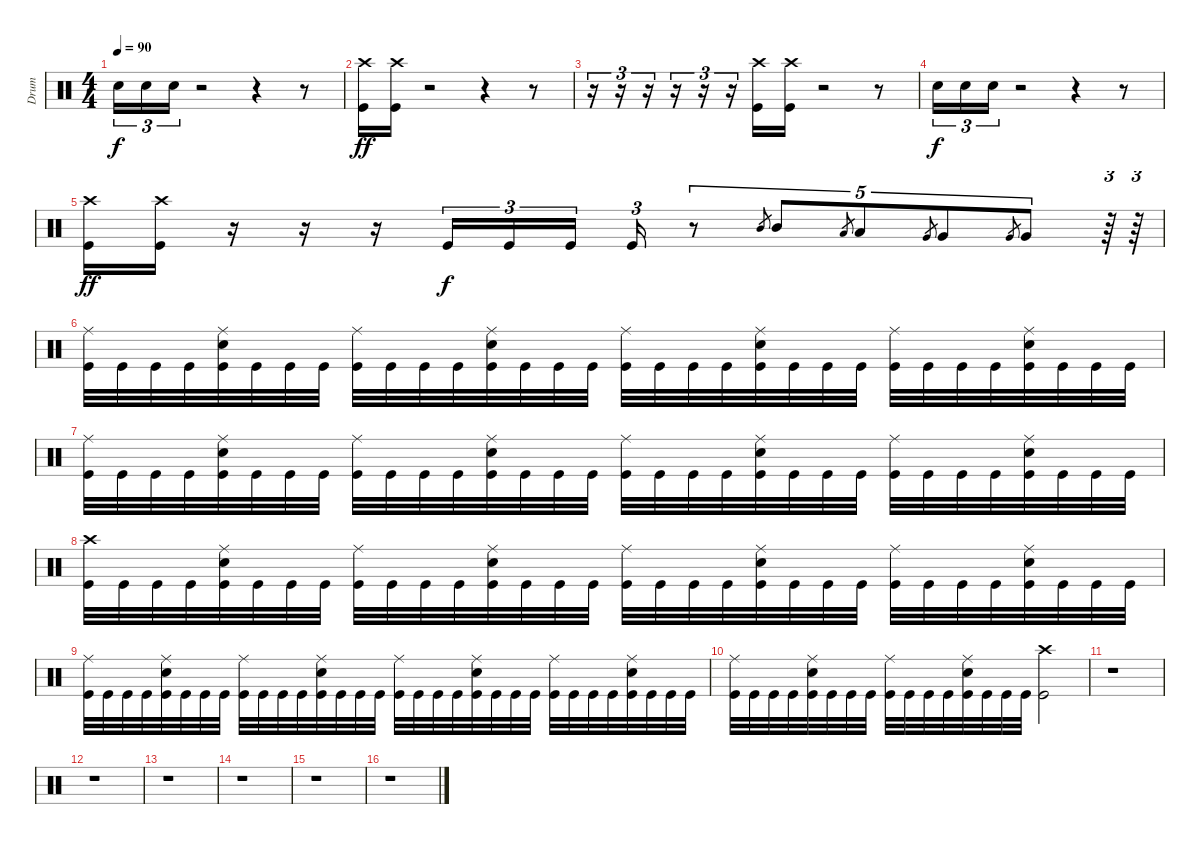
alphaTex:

\track ("Drum" "Drum") {instrument percussion}
\staff {score}
\articulation defaults
\ts (4 4)
\tempo 90
\clef neutral
\ks c "Electric Snare (hit)".16{tu (3 2) dy f} "Electric Snare (hit)".16{tu (3 2)} "Electric Snare (hit)".16{tu (3 2)}
r.2 r.4 r.8 |
("Crash high (hit)" "Kick (hit)").16{dy ff} ("Crash high (hit)" "Kick (hit)").16 r.2 r.4 r.8 |
r.16{tu (3 2) volume 13} r.16{tu (3 2)} r.16{tu (3 2)} r.16{tu (3 2)} r.16{tu (3 2)} r.16{tu (3 2)} ("Crash high (hit)" "Kick (hit)").16 ("Crash high (hit)" "Kick (hit)").16 r.2 r.8 |
"Electric Snare (hit)".16{tu (3 2) dy f} "Electric Snare (hit)".16{tu (3 2)} "Electric Snare (hit)".16{tu (3 2)} r.2 r.4 r.8 |
("Crash high (hit)" "Kick (hit)").16{dy ff} ("Crash high (hit)" "Kick (hit)").16 r.16 r.16 r.16 "Kick (hit)".16{tu (3 2) dy f} "Kick (hit)".16{tu (3 2)} "Kick (hit)".16{tu (3 2) beam splitsecondary} "Kick (hit)".16{tu (3 2)} r.8{tu (5 4)} "Mid Tom (hit)".8{gr} "Mid Tom (hit)".8{tu (5 4)} "Low Tom (hit)".8{gr} "Low Tom (hit)".8{tu (5 4)} "Very Low Tom (hit)".8{gr} "Very Low Tom (hit)".8{tu (5 4)} "Very Low Tom (hit)".8{gr} "Very Low Tom (hit)".8{tu (5 4)} r.64{tu (3 2)} r.64{tu (3 2)} |
("Ride (middle)" "Kick (hit)").32 "Kick (hit)".32 "Kick (hit)".32 "Kick (hit)".32 ("Ride (middle)" "Electric Snare (hit)" "Kick (hit)").32 "Kick (hit)".32 "Kick (hit)".32 "Kick (hit)".32 ("Ride (middle)" "Kick (hit)").32 "Kick (hit)".32 "Kick (hit)".32 "Kick (hit)".32 ("Ride (middle)" "Electric Snare (hit)" "Kick (hit)").32 "Kick (hit)".32 "Kick (hit)".32 "Kick (hit)".32 ("Ride (middle)" "Kick (hit)").32 "Kick (hit)".32 "Kick (hit)".32 "Kick (hit)".32 ("Ride (middle)" "Electric Snare (hit)" "Kick (hit)").32 "Kick (hit)".32 "Kick (hit)".32 "Kick (hit)".32 ("Ride (middle)" "Kick (hit)").32 "Kick (hit)".32 "Kick (hit)".32 "Kick (hit)".32 ("Ride (middle)" "Electric Snare (hit)" "Kick (hit)").32 "Kick (hit)".32 "Kick (hit)".32 "Kick (hit)".32 |
("Ride (middle)" "Kick (hit)").32 "Kick (hit)".32 "Kick (hit)".32 "Kick (hit)".32 ("Ride (middle)" "Electric Snare (hit)" "Kick (hit)").32 "Kick (hit)".32 "Kick (hit)".32 "Kick (hit)".32 ("Ride (middle)" "Kick (hit)").32 "Kick (hit)".32 "Kick (hit)".32 "Kick (hit)".32 ("Ride (middle)" "Electric Snare (hit)" "Kick (hit)").32 "Kick (hit)".32 "Kick (hit)".32 "Kick (hit)".32 ("Ride (middle)" "Kick (hit)").32 "Kick (hit)".32 "Kick (hit)".32 "Kick (hit)".32 ("Ride (middle)" "Electric Snare (hit)" "Kick (hit)").32 "Kick (hit)".32 "Kick (hit)".32 "Kick (hit)".32 ("Ride (middle)" "Kick (hit)").32 "Kick (hit)".32 "Kick (hit)".32 "Kick (hit)".32 ("Ride (middle)" "Electric Snare (hit)" "Kick (hit)").32 "Kick (hit)".32 "Kick (hit)".32 "Kick (hit)".32 |
("Crash high (hit)" "Kick (hit)").32 "Kick (hit)".32 "Kick (hit)".32 "Kick (hit)".32 ("Ride (middle)" "Electric Snare (hit)" "Kick (hit)").32 "Kick (hit)".32 "Kick (hit)".32 "Kick (hit)".32 ("Ride (middle)" "Kick (hit)").32 "Kick (hit)".32 "Kick (hit)".32 "Kick (hit)".32 ("Ride (middle)" "Electric Snare (hit)" "Kick (hit)").32 "Kick (hit)".32 "Kick (hit)".32 "Kick (hit)".32 ("Ride (middle)" "Kick (hit)").32 "Kick (hit)".32 "Kick (hit)".32 "Kick (hit)".32 ("Ride (middle)" "Electric Snare (hit)" "Kick (hit)").32 "Kick (hit)".32 "Kick (hit)".32 "Kick (hit)".32 ("Ride (middle)" "Kick (hit)").32 "Kick (hit)".32 "Kick (hit)".32 "Kick (hit)".32 ("Ride (middle)" "Electric Snare (hit)" "Kick (hit)").32 "Kick (hit)".32 "Kick (hit)".32 "Kick (hit)".32 |
("Ride (middle)" "Kick (hit)").32 "Kick (hit)".32 "Kick (hit)".32 "Kick (hit)".32 ("Ride (middle)" "Electric Snare (hit)" "Kick (hit)").32 "Kick (hit)".32 "Kick (hit)".32 "Kick (hit)".32 ("Ride (middle)" "Kick (hit)").32 "Kick (hit)".32 "Kick (hit)".32 "Kick (hit)".32 ("Ride (middle)" "Electric Snare (hit)" "Kick (hit)").32 "Kick (hit)".32 "Kick (hit)".32 "Kick (hit)".32 ("Ride (middle)" "Kick (hit)").32 "Kick (hit)".32 "Kick (hit)".32 "Kick (hit)".32 ("Ride (middle)" "Electric Snare (hit)" "Kick (hit)").32 "Kick (hit)".32 "Kick (hit)".32 "Kick (hit)".32 ("Ride (middle)" "Kick (hit)").32 "Kick (hit)".32 "Kick (hit)".32 "Kick (hit)".32 ("Ride (middle)" "Electric Snare (hit)" "Kick (hit)").32 "Kick (hit)".32 "Kick (hit)".32 "Kick (hit)".32 |
("Ride (middle)" "Kick (hit)").32 "Kick (hit)".32 "Kick (hit)".32 "Kick (hit)".32 ("Ride (middle)" "Electric Snare (hit)" "Kick (hit)").32 "Kick (hit)".32 "Kick (hit)".32 "Kick (hit)".32 ("Ride (middle)" "Kick (hit)").32 "Kick (hit)".32 "Kick (hit)".32 "Kick (hit)".32 ("Ride (middle)" "Electric Snare (hit)" "Kick (hit)").32 "Kick (hit)".32 "Kick (hit)".32 "Kick (hit)".32 ("Crash high (hit)" "Kick (hit)").2 |
r.1 |
r.1 |
r.1 |
r.1 |
r.1 |
r.1
